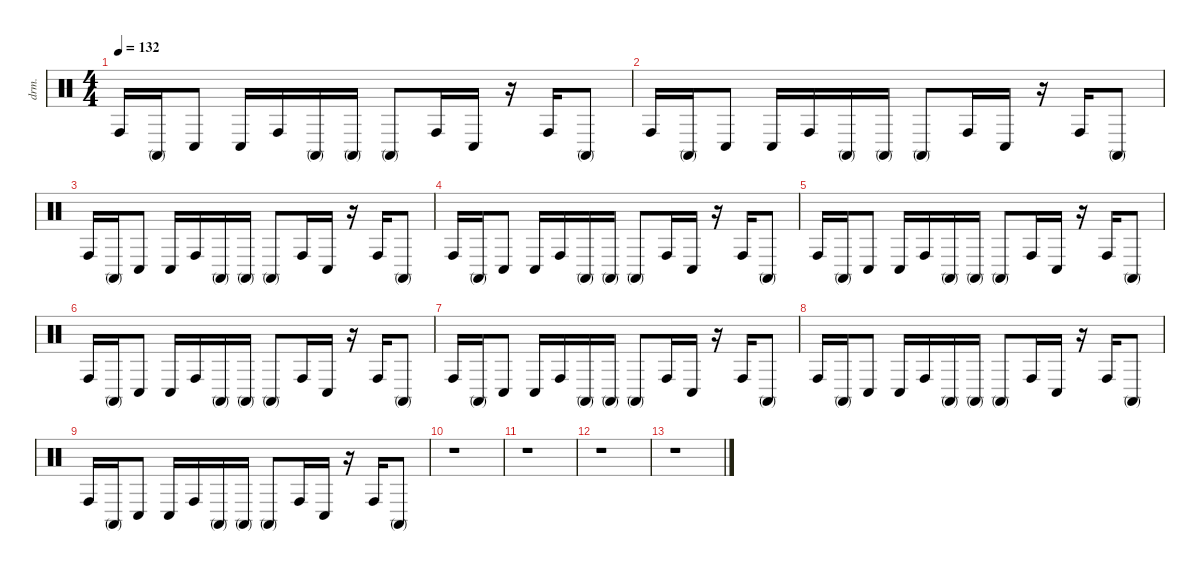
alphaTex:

\defaultSystemsLayout 4
\hideDynamics
\bracketExtendMode nobrackets
\track ("congas" "drm.") {instrument percussion}
\staff {score}
\articulation defaults
\ts (4 4)
\tempo 132
\clef neutral
\ks c "Conga high (hit)".16{dy f} "Conga high (mute)".16 "Conga low (hit)".8 "Conga low (hit)".16 "Conga high (hit)".16 "Conga high (mute)".16 "Conga high (mute)".16 "Conga high (mute)".8 "Conga high (hit)".16 "Conga low (hit)".16
r.16 "Conga high (hit)".16 "Conga high (mute)".8 |
"Conga high (hit)".16 "Conga high (mute)".16 "Conga low (hit)".8 "Conga low (hit)".16 "Conga high (hit)".16 "Conga high (mute)".16 "Conga high (mute)".16 "Conga high (mute)".8 "Conga high (hit)".16 "Conga low (hit)".16 r.16 "Conga high (hit)".16 "Conga high (mute)".8 |
"Conga high (hit)".16 "Conga high (mute)".16 "Conga low (hit)".8 "Conga low (hit)".16 "Conga high (hit)".16 "Conga high (mute)".16 "Conga high (mute)".16 "Conga high (mute)".8 "Conga high (hit)".16 "Conga low (hit)".16 r.16 "Conga high (hit)".16 "Conga high (mute)".8 |
"Conga high (hit)".16 "Conga high (mute)".16 "Conga low (hit)".8 "Conga low (hit)".16 "Conga high (hit)".16 "Conga high (mute)".16 "Conga high (mute)".16 "Conga high (mute)".8 "Conga high (hit)".16 "Conga low (hit)".16 r.16 "Conga high (hit)".16 "Conga high (mute)".8 |
"Conga high (hit)".16 "Conga high (mute)".16 "Conga low (hit)".8 "Conga low (hit)".16 "Conga high (hit)".16 "Conga high (mute)".16 "Conga high (mute)".16 "Conga high (mute)".8 "Conga high (hit)".16 "Conga low (hit)".16 r.16 "Conga high (hit)".16 "Conga high (mute)".8 |
"Conga high (hit)".16 "Conga high (mute)".16 "Conga low (hit)".8 "Conga low (hit)".16 "Conga high (hit)".16 "Conga high (mute)".16 "Conga high (mute)".16 "Conga high (mute)".8 "Conga high (hit)".16 "Conga low (hit)".16 r.16 "Conga high (hit)".16 "Conga high (mute)".8 |
"Conga high (hit)".16 "Conga high (mute)".16 "Conga low (hit)".8 "Conga low (hit)".16 "Conga high (hit)".16 "Conga high (mute)".16 "Conga high (mute)".16 "Conga high (mute)".8 "Conga high (hit)".16 "Conga low (hit)".16 r.16 "Conga high (hit)".16 "Conga high (mute)".8 |
"Conga high (hit)".16 "Conga high (mute)".16 "Conga low (hit)".8 "Conga low (hit)".16 "Conga high (hit)".16 "Conga high (mute)".16 "Conga high (mute)".16 "Conga high (mute)".8 "Conga high (hit)".16 "Conga low (hit)".16 r.16 "Conga high (hit)".16 "Conga high (mute)".8 |
"Conga high (hit)".16 "Conga high (mute)".16 "Conga low (hit)".8 "Conga low (hit)".16 "Conga high (hit)".16 "Conga high (mute)".16 "Conga high (mute)".16 "Conga high (mute)".8 "Conga high (hit)".16 "Conga low (hit)".16 r.16 "Conga high (hit)".16 "Conga high (mute)".8 |
r.1 |
r.1 |
r.1 |
r.1
